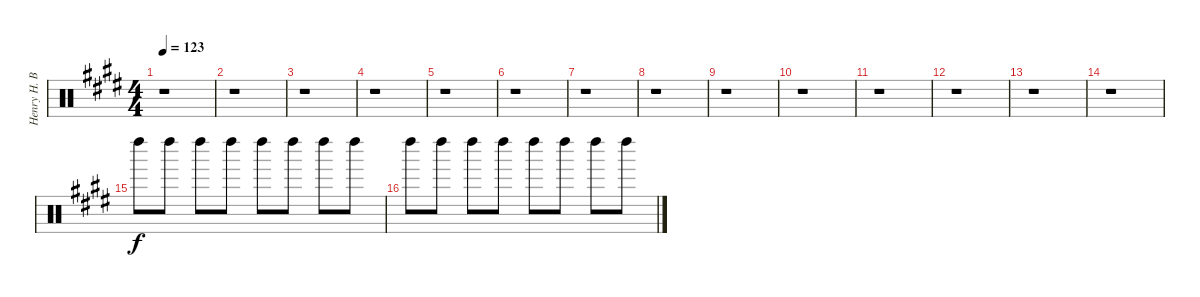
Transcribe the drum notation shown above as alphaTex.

\track ("Henry H. Bomb Weck Maracas" "Henry H. B") {instrument percussion}
\staff {score}
\articulation defaults
\ts (4 4)
\tempo 123
\clef neutral
\ks e
r.1{dy f} |
r.1 |
r.1 |
r.1 |
r.1 |
r.1 |
r.1 |
r.1 |
r.1 |
r.1 |
r.1 |
r.1 |
r.1 |
r.1 |
"Left Maraca (hit)".8{volume 12} "Left Maraca (hit)".8 "Left Maraca (hit)".8 "Left Maraca (hit)".8 "Left Maraca (hit)".8 "Left Maraca (hit)".8 "Left Maraca (hit)".8 "Left Maraca (hit)".8 |
"Left Maraca (hit)".8 "Left Maraca (hit)".8 "Left Maraca (hit)".8 "Left Maraca (hit)".8 "Left Maraca (hit)".8 "Left Maraca (hit)".8 "Left Maraca (hit)".8 "Left Maraca (hit)".8
